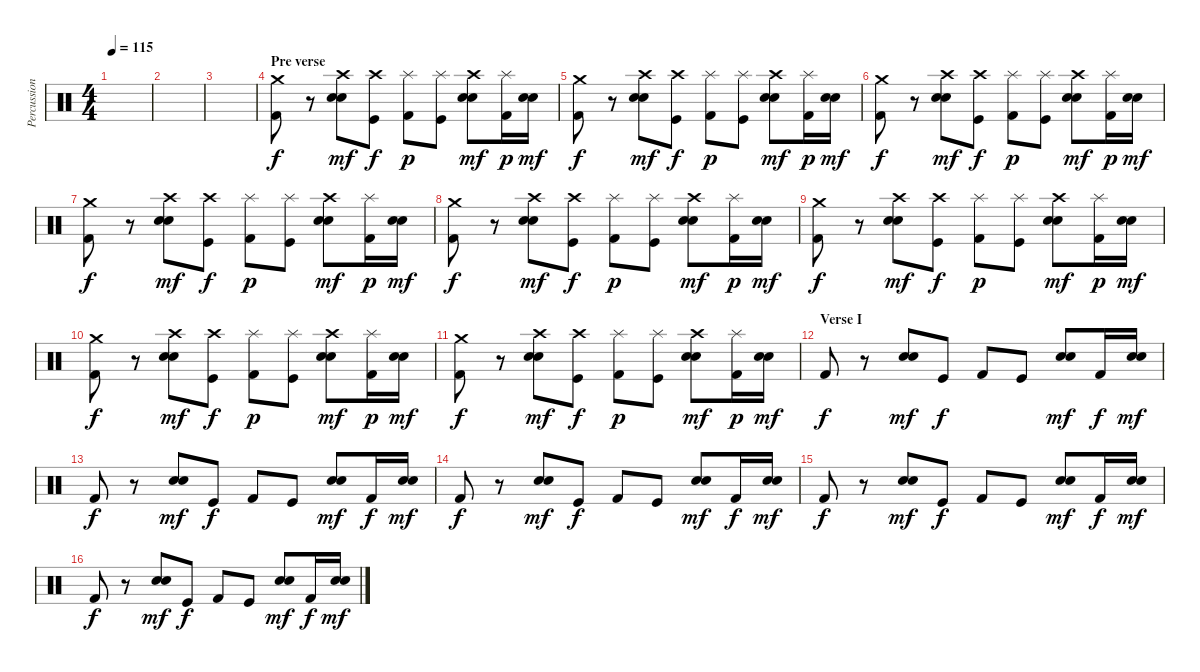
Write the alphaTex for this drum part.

\track ("Percussion - Drums" "Percussion") {instrument percussion}
\staff {score}
\articulation defaults
\ts (4 4)
\tempo 115
\clef neutral
\ks c
|
|
|
\section ("" "Pre verse")
("Crash medium (hit)" "Kick (hit) 2").8 r.8 ("Crash high (hit)" "Electric Snare (hit)" "Snare (hit) 2").8{dy mf} ("Crash high (hit)" "Kick (hit)").8{dy f} ("Splash (hit)" "Kick (hit) 2").8{dy p} ("Splash (hit)" "Kick (hit)").8 ("Crash high (hit)" "Electric Snare (hit)" "Snare (hit) 2").8{dy mf} ("Splash (hit)" "Kick (hit) 2").16{dy p} ("Electric Snare (hit)" "Snare (hit) 2").16{dy mf} |
("Crash medium (hit)" "Kick (hit) 2").8{dy f} r.8 ("Crash high (hit)" "Electric Snare (hit)" "Snare (hit) 2").8{dy mf} ("Crash high (hit)" "Kick (hit)").8{dy f} ("Splash (hit)" "Kick (hit) 2").8{dy p} ("Splash (hit)" "Kick (hit)").8 ("Crash high (hit)" "Electric Snare (hit)" "Snare (hit) 2").8{dy mf} ("Splash (hit)" "Kick (hit) 2").16{dy p} ("Electric Snare (hit)" "Snare (hit) 2").16{dy mf} |
("Crash medium (hit)" "Kick (hit) 2").8{dy f} r.8 ("Crash high (hit)" "Electric Snare (hit)" "Snare (hit) 2").8{dy mf} ("Crash high (hit)" "Kick (hit)").8{dy f} ("Splash (hit)" "Kick (hit) 2").8{dy p} ("Splash (hit)" "Kick (hit)").8 ("Crash high (hit)" "Electric Snare (hit)" "Snare (hit) 2").8{dy mf} ("Splash (hit)" "Kick (hit) 2").16{dy p} ("Electric Snare (hit)" "Snare (hit) 2").16{dy mf} |
("Crash medium (hit)" "Kick (hit) 2").8{dy f} r.8 ("Crash high (hit)" "Electric Snare (hit)" "Snare (hit) 2").8{dy mf} ("Crash high (hit)" "Kick (hit)").8{dy f} ("Splash (hit)" "Kick (hit) 2").8{dy p} ("Splash (hit)" "Kick (hit)").8 ("Crash high (hit)" "Electric Snare (hit)" "Snare (hit) 2").8{dy mf} ("Splash (hit)" "Kick (hit) 2").16{dy p} ("Electric Snare (hit)" "Snare (hit) 2").16{dy mf} |
("Crash medium (hit)" "Kick (hit) 2").8{dy f} r.8 ("Crash high (hit)" "Electric Snare (hit)" "Snare (hit) 2").8{dy mf} ("Crash high (hit)" "Kick (hit)").8{dy f} ("Splash (hit)" "Kick (hit) 2").8{dy p} ("Splash (hit)" "Kick (hit)").8 ("Crash high (hit)" "Electric Snare (hit)" "Snare (hit) 2").8{dy mf} ("Splash (hit)" "Kick (hit) 2").16{dy p} ("Electric Snare (hit)" "Snare (hit) 2").16{dy mf} |
("Crash medium (hit)" "Kick (hit) 2").8{dy f} r.8 ("Crash high (hit)" "Electric Snare (hit)" "Snare (hit) 2").8{dy mf} ("Crash high (hit)" "Kick (hit)").8{dy f} ("Splash (hit)" "Kick (hit) 2").8{dy p} ("Splash (hit)" "Kick (hit)").8 ("Crash high (hit)" "Electric Snare (hit)" "Snare (hit) 2").8{dy mf} ("Splash (hit)" "Kick (hit) 2").16{dy p} ("Electric Snare (hit)" "Snare (hit) 2").16{dy mf} |
("Crash medium (hit)" "Kick (hit) 2").8{dy f} r.8 ("Crash high (hit)" "Electric Snare (hit)" "Snare (hit) 2").8{dy mf} ("Crash high (hit)" "Kick (hit)").8{dy f} ("Splash (hit)" "Kick (hit) 2").8{dy p} ("Splash (hit)" "Kick (hit)").8 ("Crash high (hit)" "Electric Snare (hit)" "Snare (hit) 2").8{dy mf} ("Splash (hit)" "Kick (hit) 2").16{dy p} ("Electric Snare (hit)" "Snare (hit) 2").16{dy mf} |
("Crash medium (hit)" "Kick (hit) 2").8{dy f} r.8 ("Crash high (hit)" "Electric Snare (hit)" "Snare (hit) 2").8{dy mf} ("Crash high (hit)" "Kick (hit)").8{dy f} ("Splash (hit)" "Kick (hit) 2").8{dy p} ("Splash (hit)" "Kick (hit)").8 ("Crash high (hit)" "Electric Snare (hit)" "Snare (hit) 2").8{dy mf} ("Splash (hit)" "Kick (hit) 2").16{dy p} ("Electric Snare (hit)" "Snare (hit) 2").16{dy mf} |
\section ("" "Verse I")
"Kick (hit) 2".8{dy f volume 16} r.8 ("Electric Snare (hit)" "Snare (hit) 2").8{dy mf} "Kick (hit)".8{dy f} "Kick (hit) 2".8 "Kick (hit)".8 ("Electric Snare (hit)" "Snare (hit) 2").8{dy mf} "Kick (hit) 2".16{dy f} ("Electric Snare (hit)" "Snare (hit) 2").16{dy mf} |
"Kick (hit) 2".8{dy f} r.8 ("Electric Snare (hit)" "Snare (hit) 2").8{dy mf} "Kick (hit)".8{dy f} "Kick (hit) 2".8 "Kick (hit)".8 ("Electric Snare (hit)" "Snare (hit) 2").8{dy mf} "Kick (hit) 2".16{dy f} ("Electric Snare (hit)" "Snare (hit) 2").16{dy mf} |
"Kick (hit) 2".8{dy f} r.8 ("Electric Snare (hit)" "Snare (hit) 2").8{dy mf} "Kick (hit)".8{dy f} "Kick (hit) 2".8 "Kick (hit)".8 ("Electric Snare (hit)" "Snare (hit) 2").8{dy mf} "Kick (hit) 2".16{dy f} ("Electric Snare (hit)" "Snare (hit) 2").16{dy mf} |
"Kick (hit) 2".8{dy f} r.8 ("Electric Snare (hit)" "Snare (hit) 2").8{dy mf} "Kick (hit)".8{dy f} "Kick (hit) 2".8 "Kick (hit)".8 ("Electric Snare (hit)" "Snare (hit) 2").8{dy mf} "Kick (hit) 2".16{dy f} ("Electric Snare (hit)" "Snare (hit) 2").16{dy mf} |
"Kick (hit) 2".8{dy f} r.8 ("Electric Snare (hit)" "Snare (hit) 2").8{dy mf} "Kick (hit)".8{dy f} "Kick (hit) 2".8 "Kick (hit)".8 ("Electric Snare (hit)" "Snare (hit) 2").8{dy mf} "Kick (hit) 2".16{dy f} ("Electric Snare (hit)" "Snare (hit) 2").16{dy mf}
